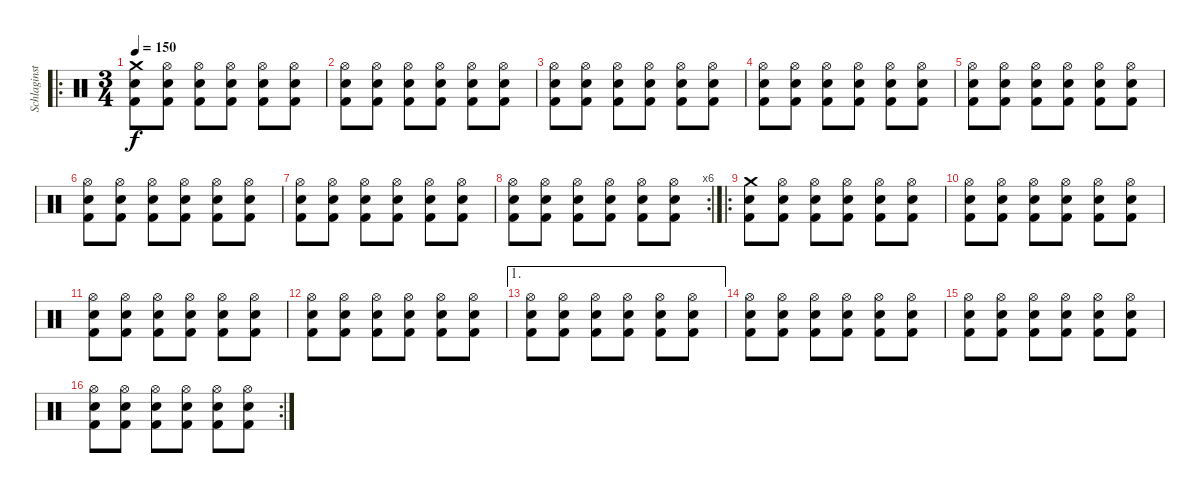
\track ("Schlaginstrumente - Auswahl" "Schlaginst") {instrument percussion}
\staff {score}
\articulation defaults
\ro
\ts (3 4)
\tempo 150
\clef neutral
\ks c
("Crash medium (hit)" "Electric Snare (hit)" "Kick (hit) 2").8{dy f} ("Hi-Hat (open)" "Electric Snare (hit)" "Kick (hit) 2").8 ("Hi-Hat (open)" "Electric Snare (hit)" "Kick (hit) 2").8 ("Hi-Hat (open)" "Electric Snare (hit)" "Kick (hit) 2").8 ("Hi-Hat (open)" "Electric Snare (hit)" "Kick (hit) 2").8 ("Hi-Hat (open)" "Electric Snare (hit)" "Kick (hit) 2").8 |
("Hi-Hat (open)" "Electric Snare (hit)" "Kick (hit) 2").8 ("Hi-Hat (open)" "Electric Snare (hit)" "Kick (hit) 2").8 ("Hi-Hat (open)" "Electric Snare (hit)" "Kick (hit) 2").8 ("Hi-Hat (open)" "Electric Snare (hit)" "Kick (hit) 2").8 ("Hi-Hat (open)" "Electric Snare (hit)" "Kick (hit) 2").8 ("Hi-Hat (open)" "Electric Snare (hit)" "Kick (hit) 2").8 |
("Hi-Hat (open)" "Electric Snare (hit)" "Kick (hit) 2").8 ("Hi-Hat (open)" "Electric Snare (hit)" "Kick (hit) 2").8 ("Hi-Hat (open)" "Electric Snare (hit)" "Kick (hit) 2").8 ("Hi-Hat (open)" "Electric Snare (hit)" "Kick (hit) 2").8 ("Hi-Hat (open)" "Electric Snare (hit)" "Kick (hit) 2").8 ("Hi-Hat (open)" "Electric Snare (hit)" "Kick (hit) 2").8 |
("Hi-Hat (open)" "Electric Snare (hit)" "Kick (hit) 2").8 ("Hi-Hat (open)" "Electric Snare (hit)" "Kick (hit) 2").8 ("Hi-Hat (open)" "Electric Snare (hit)" "Kick (hit) 2").8 ("Hi-Hat (open)" "Electric Snare (hit)" "Kick (hit) 2").8 ("Hi-Hat (open)" "Electric Snare (hit)" "Kick (hit) 2").8 ("Hi-Hat (open)" "Electric Snare (hit)" "Kick (hit) 2").8 |
("Hi-Hat (open)" "Electric Snare (hit)" "Kick (hit) 2").8 ("Hi-Hat (open)" "Electric Snare (hit)" "Kick (hit) 2").8 ("Hi-Hat (open)" "Electric Snare (hit)" "Kick (hit) 2").8 ("Hi-Hat (open)" "Electric Snare (hit)" "Kick (hit) 2").8 ("Hi-Hat (open)" "Electric Snare (hit)" "Kick (hit) 2").8 ("Hi-Hat (open)" "Electric Snare (hit)" "Kick (hit) 2").8 |
("Hi-Hat (open)" "Electric Snare (hit)" "Kick (hit) 2").8 ("Hi-Hat (open)" "Electric Snare (hit)" "Kick (hit) 2").8 ("Hi-Hat (open)" "Electric Snare (hit)" "Kick (hit) 2").8 ("Hi-Hat (open)" "Electric Snare (hit)" "Kick (hit) 2").8 ("Hi-Hat (open)" "Electric Snare (hit)" "Kick (hit) 2").8 ("Hi-Hat (open)" "Electric Snare (hit)" "Kick (hit) 2").8 |
("Hi-Hat (open)" "Electric Snare (hit)" "Kick (hit) 2").8 ("Hi-Hat (open)" "Electric Snare (hit)" "Kick (hit) 2").8 ("Hi-Hat (open)" "Electric Snare (hit)" "Kick (hit) 2").8 ("Hi-Hat (open)" "Electric Snare (hit)" "Kick (hit) 2").8 ("Hi-Hat (open)" "Electric Snare (hit)" "Kick (hit) 2").8 ("Hi-Hat (open)" "Electric Snare (hit)" "Kick (hit) 2").8 |
\rc 6
("Hi-Hat (open)" "Electric Snare (hit)" "Kick (hit) 2").8 ("Hi-Hat (open)" "Electric Snare (hit)" "Kick (hit) 2").8 ("Hi-Hat (open)" "Electric Snare (hit)" "Kick (hit) 2").8 ("Hi-Hat (open)" "Electric Snare (hit)" "Kick (hit) 2").8 ("Hi-Hat (open)" "Electric Snare (hit)" "Kick (hit) 2").8 ("Hi-Hat (open)" "Electric Snare (hit)" "Kick (hit) 2").8 |
\ro
("Crash medium (hit)" "Electric Snare (hit)" "Kick (hit) 2").8 ("Hi-Hat (open)" "Electric Snare (hit)" "Kick (hit) 2").8 ("Hi-Hat (open)" "Electric Snare (hit)" "Kick (hit) 2").8 ("Hi-Hat (open)" "Electric Snare (hit)" "Kick (hit) 2").8 ("Hi-Hat (open)" "Electric Snare (hit)" "Kick (hit) 2").8 ("Hi-Hat (open)" "Electric Snare (hit)" "Kick (hit) 2").8 |
("Hi-Hat (open)" "Electric Snare (hit)" "Kick (hit) 2").8 ("Hi-Hat (open)" "Electric Snare (hit)" "Kick (hit) 2").8 ("Hi-Hat (open)" "Electric Snare (hit)" "Kick (hit) 2").8 ("Hi-Hat (open)" "Electric Snare (hit)" "Kick (hit) 2").8 ("Hi-Hat (open)" "Electric Snare (hit)" "Kick (hit) 2").8 ("Hi-Hat (open)" "Electric Snare (hit)" "Kick (hit) 2").8 |
("Hi-Hat (open)" "Electric Snare (hit)" "Kick (hit) 2").8 ("Hi-Hat (open)" "Electric Snare (hit)" "Kick (hit) 2").8 ("Hi-Hat (open)" "Electric Snare (hit)" "Kick (hit) 2").8 ("Hi-Hat (open)" "Electric Snare (hit)" "Kick (hit) 2").8 ("Hi-Hat (open)" "Electric Snare (hit)" "Kick (hit) 2").8 ("Hi-Hat (open)" "Electric Snare (hit)" "Kick (hit) 2").8 |
("Hi-Hat (open)" "Electric Snare (hit)" "Kick (hit) 2").8 ("Hi-Hat (open)" "Electric Snare (hit)" "Kick (hit) 2").8 ("Hi-Hat (open)" "Electric Snare (hit)" "Kick (hit) 2").8 ("Hi-Hat (open)" "Electric Snare (hit)" "Kick (hit) 2").8 ("Hi-Hat (open)" "Electric Snare (hit)" "Kick (hit) 2").8 ("Hi-Hat (open)" "Electric Snare (hit)" "Kick (hit) 2").8 |
\ae 1
("Hi-Hat (open)" "Electric Snare (hit)" "Kick (hit) 2").8 ("Hi-Hat (open)" "Electric Snare (hit)" "Kick (hit) 2").8 ("Hi-Hat (open)" "Electric Snare (hit)" "Kick (hit) 2").8 ("Hi-Hat (open)" "Electric Snare (hit)" "Kick (hit) 2").8 ("Hi-Hat (open)" "Electric Snare (hit)" "Kick (hit) 2").8 ("Hi-Hat (open)" "Electric Snare (hit)" "Kick (hit) 2").8 |
("Hi-Hat (open)" "Electric Snare (hit)" "Kick (hit) 2").8 ("Hi-Hat (open)" "Electric Snare (hit)" "Kick (hit) 2").8 ("Hi-Hat (open)" "Electric Snare (hit)" "Kick (hit) 2").8 ("Hi-Hat (open)" "Electric Snare (hit)" "Kick (hit) 2").8 ("Hi-Hat (open)" "Electric Snare (hit)" "Kick (hit) 2").8 ("Hi-Hat (open)" "Electric Snare (hit)" "Kick (hit) 2").8 |
("Hi-Hat (open)" "Electric Snare (hit)" "Kick (hit) 2").8 ("Hi-Hat (open)" "Electric Snare (hit)" "Kick (hit) 2").8 ("Hi-Hat (open)" "Electric Snare (hit)" "Kick (hit) 2").8 ("Hi-Hat (open)" "Electric Snare (hit)" "Kick (hit) 2").8 ("Hi-Hat (open)" "Electric Snare (hit)" "Kick (hit) 2").8 ("Hi-Hat (open)" "Electric Snare (hit)" "Kick (hit) 2").8 |
\rc 2
("Hi-Hat (open)" "Electric Snare (hit)" "Kick (hit) 2").8 ("Hi-Hat (open)" "Electric Snare (hit)" "Kick (hit) 2").8 ("Hi-Hat (open)" "Electric Snare (hit)" "Kick (hit) 2").8 ("Hi-Hat (open)" "Electric Snare (hit)" "Kick (hit) 2").8 ("Hi-Hat (open)" "Electric Snare (hit)" "Kick (hit) 2").8 ("Hi-Hat (open)" "Electric Snare (hit)" "Kick (hit) 2").8
